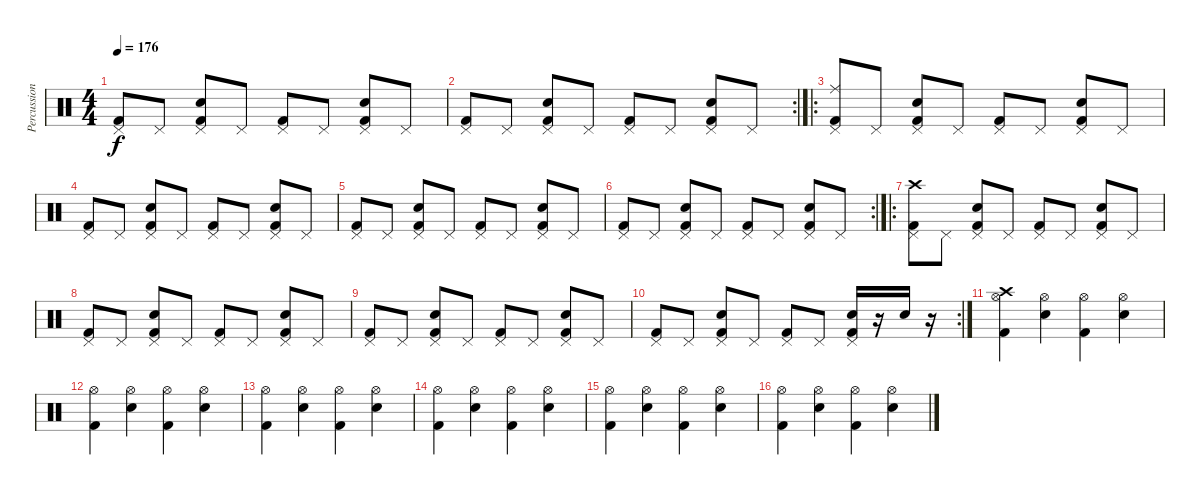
\track ("Percussion" "Percussion") {instrument percussion}
\staff {score}
\articulation defaults
\ts (4 4)
\tempo 176
\clef neutral
\ks c
("Pedal Hi-Hat (hit)" "Kick (hit) 2").8{dy f} "Pedal Hi-Hat (hit)".8 ("Pedal Hi-Hat (hit)" "Snare (hit) 2" "Kick (hit) 2").8 "Pedal Hi-Hat (hit)".8 ("Pedal Hi-Hat (hit)" "Kick (hit) 2").8 "Pedal Hi-Hat (hit)".8 ("Pedal Hi-Hat (hit)" "Snare (hit) 2" "Kick (hit) 2").8 "Pedal Hi-Hat (hit)".8 |
\rc 2
("Pedal Hi-Hat (hit)" "Kick (hit) 2").8 "Pedal Hi-Hat (hit)".8 ("Pedal Hi-Hat (hit)" "Snare (hit) 2" "Kick (hit) 2").8 "Pedal Hi-Hat (hit)".8 ("Pedal Hi-Hat (hit)" "Kick (hit) 2").8 "Pedal Hi-Hat (hit)".8 ("Pedal Hi-Hat (hit)" "Snare (hit) 2" "Kick (hit) 2").8 "Pedal Hi-Hat (hit)".8 |
\ro
("Pedal Hi-Hat (hit)" "Ride (middle)" "Kick (hit) 2").8 "Pedal Hi-Hat (hit)".8 ("Pedal Hi-Hat (hit)" "Snare (hit) 2" "Kick (hit) 2").8 "Pedal Hi-Hat (hit)".8 ("Pedal Hi-Hat (hit)" "Kick (hit) 2").8 "Pedal Hi-Hat (hit)".8 ("Pedal Hi-Hat (hit)" "Snare (hit) 2" "Kick (hit) 2").8 "Pedal Hi-Hat (hit)".8 |
("Pedal Hi-Hat (hit)" "Kick (hit) 2").8 "Pedal Hi-Hat (hit)".8 ("Pedal Hi-Hat (hit)" "Snare (hit) 2" "Kick (hit) 2").8 "Pedal Hi-Hat (hit)".8 ("Pedal Hi-Hat (hit)" "Kick (hit) 2").8 "Pedal Hi-Hat (hit)".8 ("Pedal Hi-Hat (hit)" "Snare (hit) 2" "Kick (hit) 2").8 "Pedal Hi-Hat (hit)".8 |
("Pedal Hi-Hat (hit)" "Kick (hit) 2").8 "Pedal Hi-Hat (hit)".8 ("Pedal Hi-Hat (hit)" "Snare (hit) 2" "Kick (hit) 2").8 "Pedal Hi-Hat (hit)".8 ("Pedal Hi-Hat (hit)" "Kick (hit) 2").8 "Pedal Hi-Hat (hit)".8 ("Pedal Hi-Hat (hit)" "Snare (hit) 2" "Kick (hit) 2").8 "Pedal Hi-Hat (hit)".8 |
\rc 2
("Pedal Hi-Hat (hit)" "Kick (hit) 2").8 "Pedal Hi-Hat (hit)".8 ("Pedal Hi-Hat (hit)" "Snare (hit) 2" "Kick (hit) 2").8 "Pedal Hi-Hat (hit)".8 ("Pedal Hi-Hat (hit)" "Kick (hit) 2").8 "Pedal Hi-Hat (hit)".8 ("Pedal Hi-Hat (hit)" "Snare (hit) 2" "Kick (hit) 2").8 "Pedal Hi-Hat (hit)".8 |
\ro
("Pedal Hi-Hat (hit)" "Crash high (hit)" "Kick (hit) 2").8 "Pedal Hi-Hat (hit)".8 ("Pedal Hi-Hat (hit)" "Snare (hit) 2" "Kick (hit) 2").8 "Pedal Hi-Hat (hit)".8 ("Pedal Hi-Hat (hit)" "Kick (hit) 2").8 "Pedal Hi-Hat (hit)".8 ("Pedal Hi-Hat (hit)" "Snare (hit) 2" "Kick (hit) 2").8 "Pedal Hi-Hat (hit)".8 |
("Pedal Hi-Hat (hit)" "Kick (hit) 2").8 "Pedal Hi-Hat (hit)".8 ("Pedal Hi-Hat (hit)" "Snare (hit) 2" "Kick (hit) 2").8 "Pedal Hi-Hat (hit)".8 ("Pedal Hi-Hat (hit)" "Kick (hit) 2").8 "Pedal Hi-Hat (hit)".8 ("Pedal Hi-Hat (hit)" "Snare (hit) 2" "Kick (hit) 2").8 "Pedal Hi-Hat (hit)".8 |
("Pedal Hi-Hat (hit)" "Kick (hit) 2").8 "Pedal Hi-Hat (hit)".8 ("Pedal Hi-Hat (hit)" "Snare (hit) 2" "Kick (hit) 2").8 "Pedal Hi-Hat (hit)".8 ("Pedal Hi-Hat (hit)" "Kick (hit) 2").8 "Pedal Hi-Hat (hit)".8 ("Pedal Hi-Hat (hit)" "Snare (hit) 2" "Kick (hit) 2").8 "Pedal Hi-Hat (hit)".8 |
\rc 2
("Pedal Hi-Hat (hit)" "Kick (hit) 2").8 "Pedal Hi-Hat (hit)".8 ("Pedal Hi-Hat (hit)" "Snare (hit) 2" "Kick (hit) 2").8 "Pedal Hi-Hat (hit)".8 ("Pedal Hi-Hat (hit)" "Kick (hit) 2").8 "Pedal Hi-Hat (hit)".8 ("Pedal Hi-Hat (hit)" "Snare (hit) 2" "Kick (hit) 2").16 r.16 "Snare (hit) 2".16 r.16 |
("Hi-Hat (open)" "Crash high (hit)" "Kick (hit) 2").4 ("Hi-Hat (open)" "Snare (hit) 2").4 ("Hi-Hat (open)" "Kick (hit) 2").4 ("Hi-Hat (open)" "Snare (hit) 2").4 |
("Hi-Hat (open)" "Kick (hit) 2").4 ("Hi-Hat (open)" "Snare (hit) 2").4 ("Hi-Hat (open)" "Kick (hit) 2").4 ("Hi-Hat (open)" "Snare (hit) 2").4 |
("Hi-Hat (open)" "Kick (hit) 2").4 ("Hi-Hat (open)" "Snare (hit) 2").4 ("Hi-Hat (open)" "Kick (hit) 2").4 ("Hi-Hat (open)" "Snare (hit) 2").4 |
("Hi-Hat (open)" "Kick (hit) 2").4 ("Hi-Hat (open)" "Snare (hit) 2").4 ("Hi-Hat (open)" "Kick (hit) 2").4 ("Hi-Hat (open)" "Snare (hit) 2").4 |
("Hi-Hat (open)" "Kick (hit) 2").4 ("Hi-Hat (open)" "Snare (hit) 2").4 ("Hi-Hat (open)" "Kick (hit) 2").4 ("Hi-Hat (open)" "Snare (hit) 2").4 |
("Hi-Hat (open)" "Kick (hit) 2").4 ("Hi-Hat (open)" "Snare (hit) 2").4 ("Hi-Hat (open)" "Kick (hit) 2").4 ("Hi-Hat (open)" "Snare (hit) 2").4
